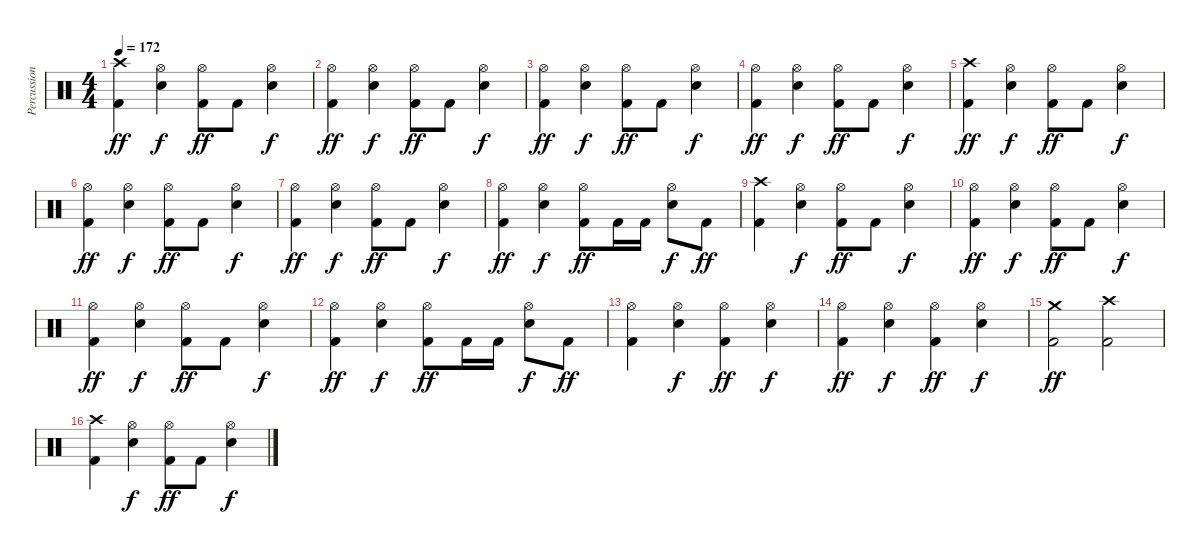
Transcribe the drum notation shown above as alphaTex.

\track ("Percussion" "Percussion") {instrument percussion}
\staff {score}
\articulation defaults
\ts (4 4)
\tempo 172
\clef neutral
\ks c
("Crash high (hit)" "Kick (hit) 2").4{dy ff} ("Hi-Hat (open)" "Snare (hit) 2").4{dy f} ("Hi-Hat (open)" "Kick (hit) 2").8{dy ff} "Kick (hit) 2".8 ("Hi-Hat (open)" "Snare (hit) 2").4{dy f} |
("Hi-Hat (open)" "Kick (hit) 2").4{dy ff} ("Hi-Hat (open)" "Snare (hit) 2").4{dy f} ("Hi-Hat (open)" "Kick (hit) 2").8{dy ff} "Kick (hit) 2".8 ("Hi-Hat (open)" "Snare (hit) 2").4{dy f} |
("Hi-Hat (open)" "Kick (hit) 2").4{dy ff} ("Hi-Hat (open)" "Snare (hit) 2").4{dy f} ("Hi-Hat (open)" "Kick (hit) 2").8{dy ff} "Kick (hit) 2".8 ("Hi-Hat (open)" "Snare (hit) 2").4{dy f} |
("Hi-Hat (open)" "Kick (hit) 2").4{dy ff} ("Hi-Hat (open)" "Snare (hit) 2").4{dy f} ("Hi-Hat (open)" "Kick (hit) 2").8{dy ff} "Kick (hit) 2".8 ("Hi-Hat (open)" "Snare (hit) 2").4{dy f} |
("Crash high (hit)" "Kick (hit) 2").4{dy ff} ("Hi-Hat (open)" "Snare (hit) 2").4{dy f} ("Hi-Hat (open)" "Kick (hit) 2").8{dy ff} "Kick (hit) 2".8 ("Hi-Hat (open)" "Snare (hit) 2").4{dy f} |
("Hi-Hat (open)" "Kick (hit) 2").4{dy ff} ("Hi-Hat (open)" "Snare (hit) 2").4{dy f} ("Hi-Hat (open)" "Kick (hit) 2").8{dy ff} "Kick (hit) 2".8 ("Hi-Hat (open)" "Snare (hit) 2").4{dy f} |
("Hi-Hat (open)" "Kick (hit) 2").4{dy ff} ("Hi-Hat (open)" "Snare (hit) 2").4{dy f} ("Hi-Hat (open)" "Kick (hit) 2").8{dy ff} "Kick (hit) 2".8 ("Hi-Hat (open)" "Snare (hit) 2").4{dy f} |
("Hi-Hat (open)" "Kick (hit) 2").4{dy ff} ("Hi-Hat (open)" "Snare (hit) 2").4{dy f} ("Hi-Hat (open)" "Kick (hit) 2").8{dy ff} "Kick (hit) 2".16 "Kick (hit) 2".16 ("Hi-Hat (open)" "Snare (hit) 2").8{dy f} "Kick (hit) 2".8{dy ff} |
("Crash high (hit)" "Kick (hit) 2").4 ("Hi-Hat (open)" "Snare (hit) 2").4{dy f} ("Hi-Hat (open)" "Kick (hit) 2").8{dy ff} "Kick (hit) 2".8 ("Hi-Hat (open)" "Snare (hit) 2").4{dy f} |
("Hi-Hat (open)" "Kick (hit) 2").4{dy ff} ("Hi-Hat (open)" "Snare (hit) 2").4{dy f} ("Hi-Hat (open)" "Kick (hit) 2").8{dy ff} "Kick (hit) 2".8 ("Hi-Hat (open)" "Snare (hit) 2").4{dy f} |
("Hi-Hat (open)" "Kick (hit) 2").4{dy ff} ("Hi-Hat (open)" "Snare (hit) 2").4{dy f} ("Hi-Hat (open)" "Kick (hit) 2").8{dy ff} "Kick (hit) 2".8 ("Hi-Hat (open)" "Snare (hit) 2").4{dy f} |
("Hi-Hat (open)" "Kick (hit) 2").4{dy ff} ("Hi-Hat (open)" "Snare (hit) 2").4{dy f} ("Hi-Hat (open)" "Kick (hit) 2").8{dy ff} "Kick (hit) 2".16 "Kick (hit) 2".16 ("Hi-Hat (open)" "Snare (hit) 2").8{dy f} "Kick (hit) 2".8{dy ff} |
("Hi-Hat (open)" "Kick (hit) 2").4 ("Hi-Hat (open)" "Snare (hit) 2").4{dy f} ("Hi-Hat (open)" "Kick (hit) 2").4{dy ff} ("Hi-Hat (open)" "Snare (hit) 2").4{dy f} |
("Hi-Hat (open)" "Kick (hit) 2").4{dy ff} ("Hi-Hat (open)" "Snare (hit) 2").4{dy f} ("Hi-Hat (open)" "Kick (hit) 2").4{dy ff} ("Hi-Hat (open)" "Snare (hit) 2").4{dy f} |
("Crash medium (hit)" "Kick (hit) 2").2{dy ff} ("Crash high (hit)" "Kick (hit) 2").2 |
("Crash high (hit)" "Kick (hit) 2").4 ("Hi-Hat (open)" "Snare (hit) 2").4{dy f} ("Hi-Hat (open)" "Kick (hit) 2").8{dy ff} "Kick (hit) 2".8 ("Hi-Hat (open)" "Snare (hit) 2").4{dy f}
